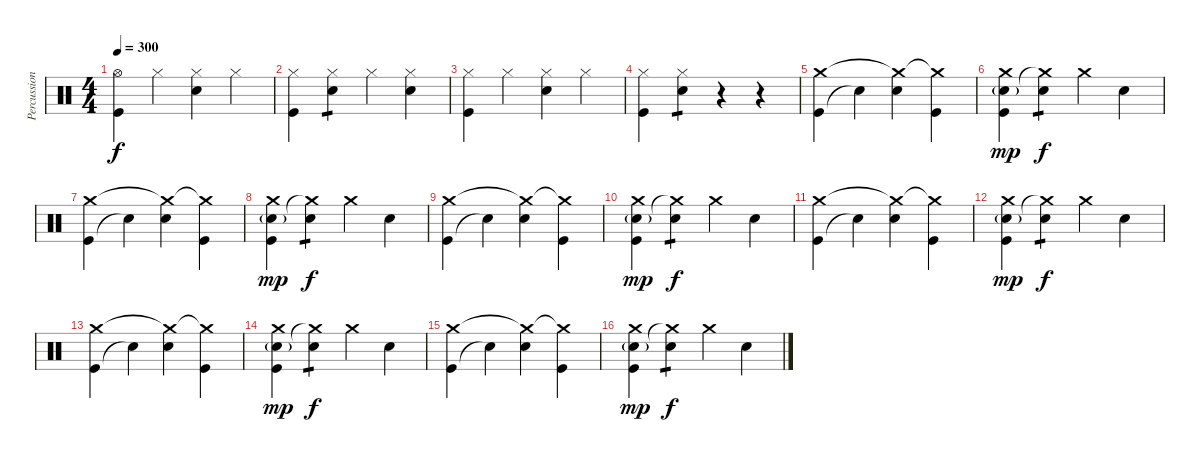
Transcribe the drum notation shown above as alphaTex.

\track ("Percussion" "Percussion") {instrument percussion}
\staff {score}
\articulation defaults
\ts (4 4)
\tempo 300
\clef neutral
\ks c
("Kick (hit)" "Hi-Hat (open)").4{dy f} "Hi-Hat (closed)".4 ("Electric Snare (hit)" "Hi-Hat (closed)").4 "Hi-Hat (closed)".4 |
("Kick (hit)" "Hi-Hat (closed)").4 ("Electric Snare (hit)" "Hi-Hat (closed)").4{tp 1} "Hi-Hat (closed)".4 ("Electric Snare (hit)" "Hi-Hat (closed)").4 |
("Kick (hit)" "Hi-Hat (closed)").4 "Hi-Hat (closed)".4 ("Electric Snare (hit)" "Hi-Hat (closed)").4 "Hi-Hat (closed)".4 |
("Kick (hit)" "Hi-Hat (closed)").4 ("Electric Snare (hit)" "Hi-Hat (closed)").4{tp 1} r.4 r.4 |
("Kick (hit)" "Crash medium (hit)").4 "Snare (hit)"{t}.4 ("Electric Snare (hit)" "Crash medium (hit)"{t}).4 ("Kick (hit)" "Crash medium (hit)"{t}).4 |
("Kick (hit)" "Electric Snare (hit)"{g} "Crash medium (hit)").4{dy mp} ("Electric Snare (hit)" "Crash medium (hit)"{t}).4{tp 1 dy f} "Crash medium (hit)".4 "Electric Snare (hit)".4 |
("Kick (hit)" "Crash medium (hit)").4 "Snare (hit)"{t}.4 ("Electric Snare (hit)" "Crash medium (hit)"{t}).4 ("Kick (hit)" "Crash medium (hit)"{t}).4 |
("Kick (hit)" "Electric Snare (hit)"{g} "Crash medium (hit)").4{dy mp} ("Electric Snare (hit)" "Crash medium (hit)"{t}).4{tp 1 dy f} "Crash medium (hit)".4 "Electric Snare (hit)".4 |
("Kick (hit)" "Crash medium (hit)").4 "Snare (hit)"{t}.4 ("Electric Snare (hit)" "Crash medium (hit)"{t}).4 ("Kick (hit)" "Crash medium (hit)"{t}).4 |
("Kick (hit)" "Electric Snare (hit)"{g} "Crash medium (hit)").4{dy mp} ("Electric Snare (hit)" "Crash medium (hit)"{t}).4{tp 1 dy f} "Crash medium (hit)".4 "Electric Snare (hit)".4 |
("Kick (hit)" "Crash medium (hit)").4 "Snare (hit)"{t}.4 ("Electric Snare (hit)" "Crash medium (hit)"{t}).4 ("Kick (hit)" "Crash medium (hit)"{t}).4 |
("Kick (hit)" "Electric Snare (hit)"{g} "Crash medium (hit)").4{dy mp} ("Electric Snare (hit)" "Crash medium (hit)"{t}).4{tp 1 dy f} "Crash medium (hit)".4 "Electric Snare (hit)".4 |
("Kick (hit)" "Crash medium (hit)").4 "Snare (hit)"{t}.4 ("Electric Snare (hit)" "Crash medium (hit)"{t}).4 ("Kick (hit)" "Crash medium (hit)"{t}).4 |
("Kick (hit)" "Electric Snare (hit)"{g} "Crash medium (hit)").4{dy mp} ("Electric Snare (hit)" "Crash medium (hit)"{t}).4{tp 1 dy f} "Crash medium (hit)".4 "Electric Snare (hit)".4 |
("Kick (hit)" "Crash medium (hit)").4 "Snare (hit)"{t}.4 ("Electric Snare (hit)" "Crash medium (hit)"{t}).4 ("Kick (hit)" "Crash medium (hit)"{t}).4 |
("Kick (hit)" "Electric Snare (hit)"{g} "Crash medium (hit)").4{dy mp} ("Electric Snare (hit)" "Crash medium (hit)"{t}).4{tp 1 dy f} "Crash medium (hit)".4 "Electric Snare (hit)".4
